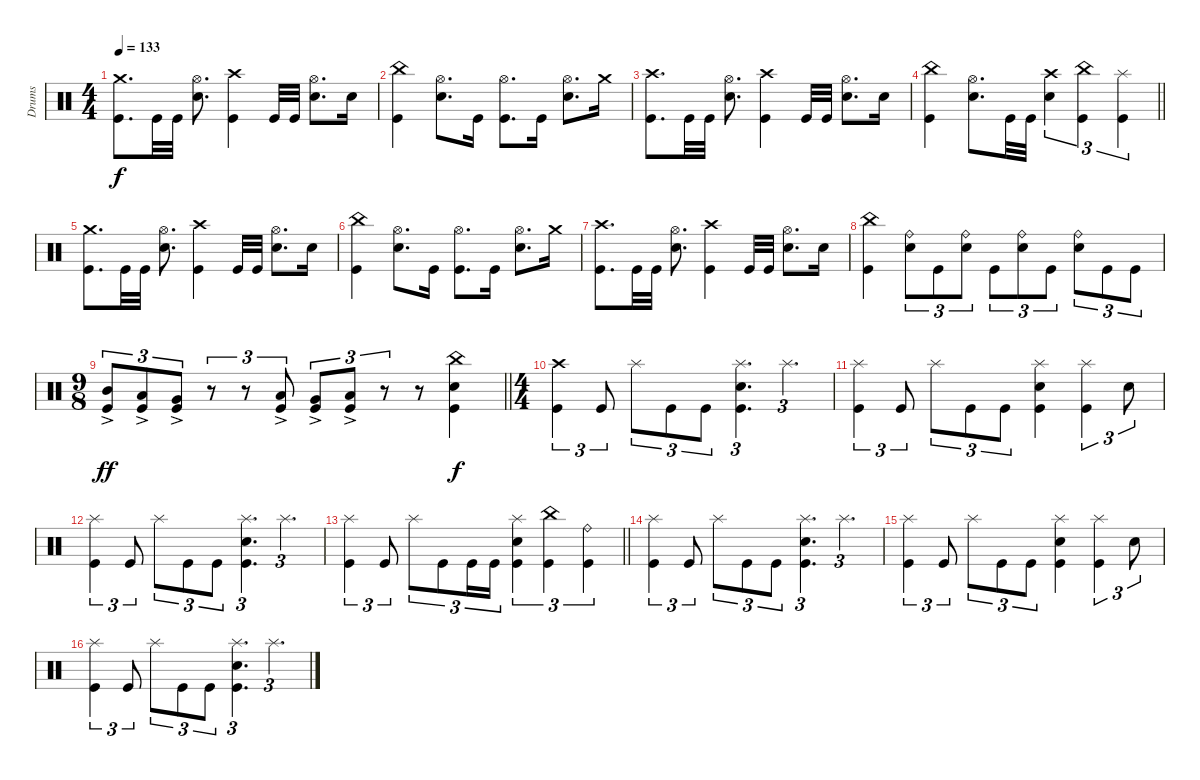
\track ("Drums" "Drums") {instrument percussion}
\staff
\articulation defaults
\ts (4 4)
\section ("" "")
\tempo 133
\clef neutral
\ks c
("Crash medium (hit)" "Kick (hit)").8{d dy f} "Kick (hit)".32 "Kick (hit)".32 ("Hi-Hat (open)" "Electric Snare (hit)").8{d} ("Crash high (hit)" "Kick (hit)").4 "Kick (hit)".32 "Kick (hit)".32 ("Hi-Hat (open)" "Electric Snare (hit)").8{d} "Electric Snare (hit)".16 |
("China (hit)" "Kick (hit)").4 ("Hi-Hat (open)" "Electric Snare (hit)").8{d} "Kick (hit)".16 ("Hi-Hat (open)" "Kick (hit)").8{d} "Kick (hit)".16 ("Hi-Hat (open)" "Electric Snare (hit)").8{d} "Crash medium (hit)".16 |
("Crash high (hit)" "Kick (hit)").8{d} "Kick (hit)".32 "Kick (hit)".32 ("Hi-Hat (open)" "Electric Snare (hit)").8{d} ("Crash high (hit)" "Kick (hit)").4 "Kick (hit)".32 "Kick (hit)".32 ("Hi-Hat (open)" "Electric Snare (hit)").8{d} "Electric Snare (hit)".16 |
\barLineRight lightlight
("China (hit)" "Kick (hit)").4 ("Hi-Hat (open)" "Electric Snare (hit)").8{d} "Kick (hit)".32 "Kick (hit)".32 ("Crash high (hit)" "Electric Snare (hit)").4{tu (3 2)} ("China (hit)" "Kick (hit)").4{tu (3 2)} ("Splash (hit)" "Kick (hit)").4{tu (3 2)} |
("Crash medium (hit)" "Kick (hit)").8{d} "Kick (hit)".32 "Kick (hit)".32 ("Hi-Hat (open)" "Electric Snare (hit)").8{d} ("Crash high (hit)" "Kick (hit)").4 "Kick (hit)".32 "Kick (hit)".32 ("Hi-Hat (open)" "Electric Snare (hit)").8{d} "Electric Snare (hit)".16 |
("China (hit)" "Kick (hit)").4 ("Hi-Hat (open)" "Electric Snare (hit)").8{d} "Kick (hit)".16 ("Hi-Hat (open)" "Kick (hit)").8{d} "Kick (hit)".16 ("Hi-Hat (open)" "Electric Snare (hit)").8{d} "Crash medium (hit)".16 |
("Crash high (hit)" "Kick (hit)").8{d} "Kick (hit)".32 "Kick (hit)".32 ("Hi-Hat (open)" "Electric Snare (hit)").8{d} ("Crash high (hit)" "Kick (hit)").4 "Kick (hit)".32 "Kick (hit)".32 ("Hi-Hat (open)" "Electric Snare (hit)").8{d} "Electric Snare (hit)".16 |
("China (hit)" "Kick (hit)").4 ("Ride (bell)" "Electric Snare (hit)").8{tu (3 2)} "Kick (hit)".8{tu (3 2)} ("Ride (bell)" "Electric Snare (hit)").8{tu (3 2)} "Kick (hit)".8{tu (3 2)} ("Ride (bell)" "Electric Snare (hit)").8{tu (3 2)} "Kick (hit)".8{tu (3 2)} ("Ride (bell)" "Electric Snare (hit)").8{tu (3 2)} "Kick (hit)".8{tu (3 2)} "Kick (hit)".8{tu (3 2)} |
\ts (9 8)
\barLineRight lightlight
("Mid Tom (hit)"{ac} "Kick (hit)").8{tu (3 2) dy ff balance 16} ("Low Tom (hit)"{ac} "Kick (hit)").8{tu (3 2) balance 12} ("Very Low Tom (hit)"{ac} "Kick (hit)").8{tu (3 2) balance 8} r.8{tu (3 2)} r.8{tu (3 2)} ("Low Tom (hit)"{ac} "Kick (hit)").8{tu (3 2)} ("Very Low Tom (hit)"{ac} "Kick (hit)").8{tu (3 2) balance 4} ("Low Floor Tom (hit)"{ac} "Kick (hit)").8{tu (3 2) balance 0} r.8{tu (3 2)} r.8 ("China (hit)" "Electric Snare (hit)" "Kick (hit)").4{dy f balance 8} |
\ts (4 4)
\section ("" "")
("Crash high (hit)" "Kick (hit)").4{tu (3 2)} "Kick (hit)".8{tu (3 2)} "Splash (hit)".8{tu (3 2)} "Kick (hit)".8{tu (3 2)} "Kick (hit)".8{tu (3 2)} ("Splash (hit)" "Electric Snare (hit)" "Kick (hit)").4{d tu (3 2)} "Splash (hit)".4{d tu (3 2)} |
("Splash (hit)" "Kick (hit)").4{tu (3 2)} "Kick (hit)".8{tu (3 2)} "Splash (hit)".8{tu (3 2)} "Kick (hit)".8{tu (3 2)} "Kick (hit)".8{tu (3 2)} ("Splash (hit)" "Electric Snare (hit)" "Kick (hit)").4 ("Splash (hit)" "Kick (hit)").4{tu (3 2)} "Electric Snare (hit)".8{tu (3 2)} |
("Splash (hit)" "Kick (hit)").4{tu (3 2)} "Kick (hit)".8{tu (3 2)} "Splash (hit)".8{tu (3 2)} "Kick (hit)".8{tu (3 2)} "Kick (hit)".8{tu (3 2)} ("Splash (hit)" "Electric Snare (hit)" "Kick (hit)").4{d tu (3 2)} "Splash (hit)".4{d tu (3 2)} |
\barLineRight lightlight
("Splash (hit)" "Kick (hit)").4{tu (3 2)} "Kick (hit)".8{tu (3 2)} "Splash (hit)".8{tu (3 2)} "Kick (hit)".8{tu (3 2)} "Kick (hit)".16{tu (3 2)} "Kick (hit)".16{tu (3 2)} ("Splash (hit)" "Electric Snare (hit)" "Kick (hit)").4{tu (3 2)} ("China (hit)" "Kick (hit)").4{tu (3 2)} ("Ride (bell)" "Kick (hit)").4{tu (3 2)} |
("Splash (hit)" "Kick (hit)").4{tu (3 2)} "Kick (hit)".8{tu (3 2)} "Splash (hit)".8{tu (3 2)} "Kick (hit)".8{tu (3 2)} "Kick (hit)".8{tu (3 2)} ("Splash (hit)" "Electric Snare (hit)" "Kick (hit)").4{d tu (3 2)} "Splash (hit)".4{d tu (3 2)} |
("Splash (hit)" "Kick (hit)").4{tu (3 2)} "Kick (hit)".8{tu (3 2)} "Splash (hit)".8{tu (3 2)} "Kick (hit)".8{tu (3 2)} "Kick (hit)".8{tu (3 2)} ("Splash (hit)" "Electric Snare (hit)" "Kick (hit)").4 ("Splash (hit)" "Kick (hit)").4{tu (3 2)} "Electric Snare (hit)".8{tu (3 2)} |
("Splash (hit)" "Kick (hit)").4{tu (3 2)} "Kick (hit)".8{tu (3 2)} "Splash (hit)".8{tu (3 2)} "Kick (hit)".8{tu (3 2)} "Kick (hit)".8{tu (3 2)} ("Splash (hit)" "Electric Snare (hit)" "Kick (hit)").4{d tu (3 2)} "Splash (hit)".4{d tu (3 2)}
